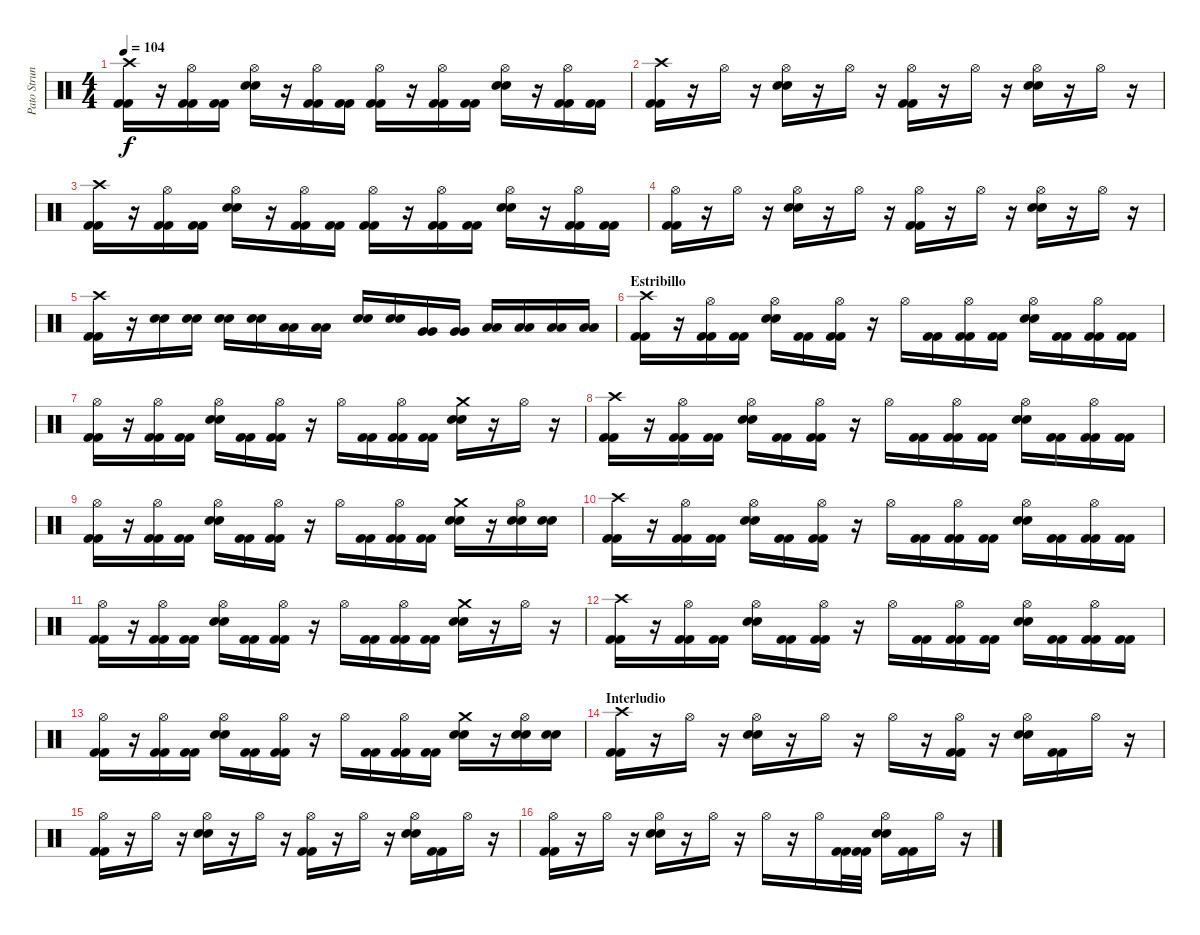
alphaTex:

\track ("Pato Strunz (Bateria)" "Pato Strun") {instrument percussion}
\staff {score}
\articulation defaults
\ts (4 4)
\tempo 104
\clef neutral
\ks c
("Crash high (hit)" "Kick (hit) 2" "Kick (hit) 2").16{dy f} r.16 ("Hi-Hat (open)" "Kick (hit) 2" "Kick (hit) 2").16 ("Kick (hit) 2" "Kick (hit) 2").16 ("Hi-Hat (open)" "Snare (hit) 2" "Snare (hit) 2").16 r.16 ("Hi-Hat (open)" "Kick (hit) 2" "Kick (hit) 2").16 ("Kick (hit) 2" "Kick (hit) 2").16 ("Hi-Hat (open)" "Kick (hit) 2" "Kick (hit) 2").16 r.16 ("Hi-Hat (open)" "Kick (hit) 2" "Kick (hit) 2").16 ("Kick (hit) 2" "Kick (hit) 2").16 ("Hi-Hat (open)" "Snare (hit) 2" "Snare (hit) 2").16 r.16 ("Hi-Hat (open)" "Kick (hit) 2" "Kick (hit) 2").16 ("Kick (hit) 2" "Kick (hit) 2").16 |
("Crash high (hit)" "Kick (hit) 2" "Kick (hit) 2").16 r.16 "Hi-Hat (open)".16 r.16 ("Hi-Hat (open)" "Snare (hit) 2" "Snare (hit) 2").16 r.16 "Hi-Hat (open)".16 r.16 ("Hi-Hat (open)" "Kick (hit) 2" "Kick (hit) 2").16 r.16 "Hi-Hat (open)".16 r.16 ("Hi-Hat (open)" "Snare (hit) 2" "Snare (hit) 2").16 r.16 "Hi-Hat (open)".16 r.16 |
("Crash high (hit)" "Kick (hit) 2" "Kick (hit) 2").16 r.16 ("Hi-Hat (open)" "Kick (hit) 2" "Kick (hit) 2").16 ("Kick (hit) 2" "Kick (hit) 2").16 ("Hi-Hat (open)" "Snare (hit) 2" "Snare (hit) 2").16 r.16 ("Hi-Hat (open)" "Kick (hit) 2" "Kick (hit) 2").16 ("Kick (hit) 2" "Kick (hit) 2").16 ("Hi-Hat (open)" "Kick (hit) 2" "Kick (hit) 2").16 r.16 ("Hi-Hat (open)" "Kick (hit) 2" "Kick (hit) 2").16 ("Kick (hit) 2" "Kick (hit) 2").16 ("Hi-Hat (open)" "Snare (hit) 2" "Snare (hit) 2").16 r.16 ("Hi-Hat (open)" "Kick (hit) 2" "Kick (hit) 2").16 ("Kick (hit) 2" "Kick (hit) 2").16 |
("Hi-Hat (open)" "Kick (hit) 2" "Kick (hit) 2").16 r.16 "Hi-Hat (open)".16 r.16 ("Hi-Hat (open)" "Snare (hit) 2" "Snare (hit) 2").16 r.16 "Hi-Hat (open)".16 r.16 ("Hi-Hat (open)" "Kick (hit) 2" "Kick (hit) 2").16 r.16 "Hi-Hat (open)".16 r.16 ("Hi-Hat (open)" "Snare (hit) 2" "Snare (hit) 2").16 r.16 "Hi-Hat (open)".16 r.16 |
("Crash high (hit)" "Kick (hit) 2" "Kick (hit) 2").16 r.16 ("Snare (hit) 2" "Snare (hit) 2").16 ("Snare (hit) 2" "Snare (hit) 2").16 ("Snare (hit) 2" "Snare (hit) 2").16 ("Snare (hit) 2" "Snare (hit) 2").16 ("Low Tom (hit)" "Low Tom (hit)").16 ("Low Tom (hit)" "Low Tom (hit)").16 ("Snare (hit) 2" "Snare (hit) 2").16 ("Snare (hit) 2" "Snare (hit) 2").16 ("Very Low Tom (hit)" "Very Low Tom (hit)").16 ("Very Low Tom (hit)" "Very Low Tom (hit)").16 ("Low Floor Tom (hit)" "Low Floor Tom (hit)").16 ("Low Floor Tom (hit)" "Low Floor Tom (hit)").16 ("Low Floor Tom (hit)" "Low Floor Tom (hit)").16 ("Low Floor Tom (hit)" "Low Floor Tom (hit)").16 |
\section ("" "Estribillo")
("Crash high (hit)" "Kick (hit) 2" "Kick (hit) 2").16 r.16 ("Hi-Hat (open)" "Kick (hit) 2" "Kick (hit) 2").16 ("Kick (hit) 2" "Kick (hit) 2").16 ("Hi-Hat (open)" "Snare (hit) 2" "Snare (hit) 2").16 ("Kick (hit) 2" "Kick (hit) 2").16 ("Hi-Hat (open)" "Kick (hit) 2" "Kick (hit) 2").16 r.16 "Hi-Hat (open)".16 ("Kick (hit) 2" "Kick (hit) 2").16 ("Hi-Hat (open)" "Kick (hit) 2" "Kick (hit) 2").16 ("Kick (hit) 2" "Kick (hit) 2").16 ("Hi-Hat (open)" "Snare (hit) 2" "Snare (hit) 2").16 ("Kick (hit) 2" "Kick (hit) 2").16 ("Hi-Hat (open)" "Kick (hit) 2" "Kick (hit) 2").16 ("Kick (hit) 2" "Kick (hit) 2").16 |
("Hi-Hat (open)" "Kick (hit) 2" "Kick (hit) 2").16 r.16 ("Hi-Hat (open)" "Kick (hit) 2" "Kick (hit) 2").16 ("Kick (hit) 2" "Kick (hit) 2").16 ("Hi-Hat (open)" "Snare (hit) 2" "Snare (hit) 2").16 ("Kick (hit) 2" "Kick (hit) 2").16 ("Hi-Hat (open)" "Kick (hit) 2" "Kick (hit) 2").16 r.16 "Hi-Hat (open)".16 ("Kick (hit) 2" "Kick (hit) 2").16 ("Hi-Hat (open)" "Kick (hit) 2" "Kick (hit) 2").16 ("Kick (hit) 2" "Kick (hit) 2").16 ("Crash medium (hit)" "Snare (hit) 2" "Snare (hit) 2").16 r.16 "Hi-Hat (open)".16 r.16 |
("Crash high (hit)" "Kick (hit) 2" "Kick (hit) 2").16 r.16 ("Hi-Hat (open)" "Kick (hit) 2" "Kick (hit) 2").16 ("Kick (hit) 2" "Kick (hit) 2").16 ("Hi-Hat (open)" "Snare (hit) 2" "Snare (hit) 2").16 ("Kick (hit) 2" "Kick (hit) 2").16 ("Hi-Hat (open)" "Kick (hit) 2" "Kick (hit) 2").16 r.16 "Hi-Hat (open)".16 ("Kick (hit) 2" "Kick (hit) 2").16 ("Hi-Hat (open)" "Kick (hit) 2" "Kick (hit) 2").16 ("Kick (hit) 2" "Kick (hit) 2").16 ("Hi-Hat (open)" "Snare (hit) 2" "Snare (hit) 2").16 ("Kick (hit) 2" "Kick (hit) 2").16 ("Hi-Hat (open)" "Kick (hit) 2" "Kick (hit) 2").16 ("Kick (hit) 2" "Kick (hit) 2").16 |
("Hi-Hat (open)" "Kick (hit) 2" "Kick (hit) 2").16 r.16 ("Hi-Hat (open)" "Kick (hit) 2" "Kick (hit) 2").16 ("Kick (hit) 2" "Kick (hit) 2").16 ("Hi-Hat (open)" "Snare (hit) 2" "Snare (hit) 2").16 ("Kick (hit) 2" "Kick (hit) 2").16 ("Hi-Hat (open)" "Kick (hit) 2" "Kick (hit) 2").16 r.16 "Hi-Hat (open)".16 ("Kick (hit) 2" "Kick (hit) 2").16 ("Hi-Hat (open)" "Kick (hit) 2" "Kick (hit) 2").16 ("Kick (hit) 2" "Kick (hit) 2").16 ("Crash medium (hit)" "Snare (hit) 2" "Snare (hit) 2").16 r.16 ("Hi-Hat (open)" "Snare (hit) 2" "Snare (hit) 2").16 ("Snare (hit) 2" "Snare (hit) 2").16 |
("Crash high (hit)" "Kick (hit) 2" "Kick (hit) 2").16 r.16 ("Hi-Hat (open)" "Kick (hit) 2" "Kick (hit) 2").16 ("Kick (hit) 2" "Kick (hit) 2").16 ("Hi-Hat (open)" "Snare (hit) 2" "Snare (hit) 2").16 ("Kick (hit) 2" "Kick (hit) 2").16 ("Hi-Hat (open)" "Kick (hit) 2" "Kick (hit) 2").16 r.16 "Hi-Hat (open)".16 ("Kick (hit) 2" "Kick (hit) 2").16 ("Hi-Hat (open)" "Kick (hit) 2" "Kick (hit) 2").16 ("Kick (hit) 2" "Kick (hit) 2").16 ("Hi-Hat (open)" "Snare (hit) 2" "Snare (hit) 2").16 ("Kick (hit) 2" "Kick (hit) 2").16 ("Hi-Hat (open)" "Kick (hit) 2" "Kick (hit) 2").16 ("Kick (hit) 2" "Kick (hit) 2").16 |
("Hi-Hat (open)" "Kick (hit) 2" "Kick (hit) 2").16 r.16 ("Hi-Hat (open)" "Kick (hit) 2" "Kick (hit) 2").16 ("Kick (hit) 2" "Kick (hit) 2").16 ("Hi-Hat (open)" "Snare (hit) 2" "Snare (hit) 2").16 ("Kick (hit) 2" "Kick (hit) 2").16 ("Hi-Hat (open)" "Kick (hit) 2" "Kick (hit) 2").16 r.16 "Hi-Hat (open)".16 ("Kick (hit) 2" "Kick (hit) 2").16 ("Hi-Hat (open)" "Kick (hit) 2" "Kick (hit) 2").16 ("Kick (hit) 2" "Kick (hit) 2").16 ("Crash medium (hit)" "Snare (hit) 2" "Snare (hit) 2").16 r.16 "Hi-Hat (open)".16 r.16 |
("Crash high (hit)" "Kick (hit) 2" "Kick (hit) 2").16 r.16 ("Hi-Hat (open)" "Kick (hit) 2" "Kick (hit) 2").16 ("Kick (hit) 2" "Kick (hit) 2").16 ("Hi-Hat (open)" "Snare (hit) 2" "Snare (hit) 2").16 ("Kick (hit) 2" "Kick (hit) 2").16 ("Hi-Hat (open)" "Kick (hit) 2" "Kick (hit) 2").16 r.16 "Hi-Hat (open)".16 ("Kick (hit) 2" "Kick (hit) 2").16 ("Hi-Hat (open)" "Kick (hit) 2" "Kick (hit) 2").16 ("Kick (hit) 2" "Kick (hit) 2").16 ("Hi-Hat (open)" "Snare (hit) 2" "Snare (hit) 2").16 ("Kick (hit) 2" "Kick (hit) 2").16 ("Hi-Hat (open)" "Kick (hit) 2" "Kick (hit) 2").16 ("Kick (hit) 2" "Kick (hit) 2").16 |
("Hi-Hat (open)" "Kick (hit) 2" "Kick (hit) 2").16 r.16 ("Hi-Hat (open)" "Kick (hit) 2" "Kick (hit) 2").16 ("Kick (hit) 2" "Kick (hit) 2").16 ("Hi-Hat (open)" "Snare (hit) 2" "Snare (hit) 2").16 ("Kick (hit) 2" "Kick (hit) 2").16 ("Hi-Hat (open)" "Kick (hit) 2" "Kick (hit) 2").16 r.16 "Hi-Hat (open)".16 ("Kick (hit) 2" "Kick (hit) 2").16 ("Hi-Hat (open)" "Kick (hit) 2" "Kick (hit) 2").16 ("Kick (hit) 2" "Kick (hit) 2").16 ("Crash medium (hit)" "Snare (hit) 2" "Snare (hit) 2").16 r.16 ("Hi-Hat (open)" "Snare (hit) 2" "Snare (hit) 2").16 ("Snare (hit) 2" "Snare (hit) 2").16 |
\section ("" "Interludio")
("Crash high (hit)" "Kick (hit) 2" "Kick (hit) 2").16 r.16 "Hi-Hat (open)".16 r.16 ("Hi-Hat (open)" "Snare (hit) 2" "Snare (hit) 2").16 r.16 "Hi-Hat (open)".16 r.16 "Hi-Hat (open)".16 r.16 ("Hi-Hat (open)" "Kick (hit) 2" "Kick (hit) 2").16 r.16 ("Hi-Hat (open)" "Snare (hit) 2" "Snare (hit) 2").16 ("Kick (hit) 2" "Kick (hit) 2").16 "Hi-Hat (open)".16 r.16 |
("Hi-Hat (open)" "Kick (hit) 2" "Kick (hit) 2").16 r.16 "Hi-Hat (open)".16 r.16 ("Hi-Hat (open)" "Snare (hit) 2" "Snare (hit) 2").16 r.16 "Hi-Hat (open)".16 r.16 ("Hi-Hat (open)" "Kick (hit) 2" "Kick (hit) 2").16 r.16 "Hi-Hat (open)".16 r.16 ("Hi-Hat (open)" "Snare (hit) 2" "Snare (hit) 2").16 ("Kick (hit) 2" "Kick (hit) 2").16 "Hi-Hat (open)".16 r.16 |
("Hi-Hat (open)" "Kick (hit) 2" "Kick (hit) 2").16 r.16 "Hi-Hat (open)".16 r.16 ("Hi-Hat (open)" "Snare (hit) 2" "Snare (hit) 2").16 r.16 "Hi-Hat (open)".16 r.16 "Hi-Hat (open)".16 r.16 "Hi-Hat (open)".16 ("Kick (hit) 2" "Kick (hit) 2").32 ("Kick (hit) 2" "Kick (hit) 2").32 ("Hi-Hat (open)" "Snare (hit) 2" "Snare (hit) 2").16 ("Kick (hit) 2" "Kick (hit) 2").16 "Hi-Hat (open)".16 r.16
